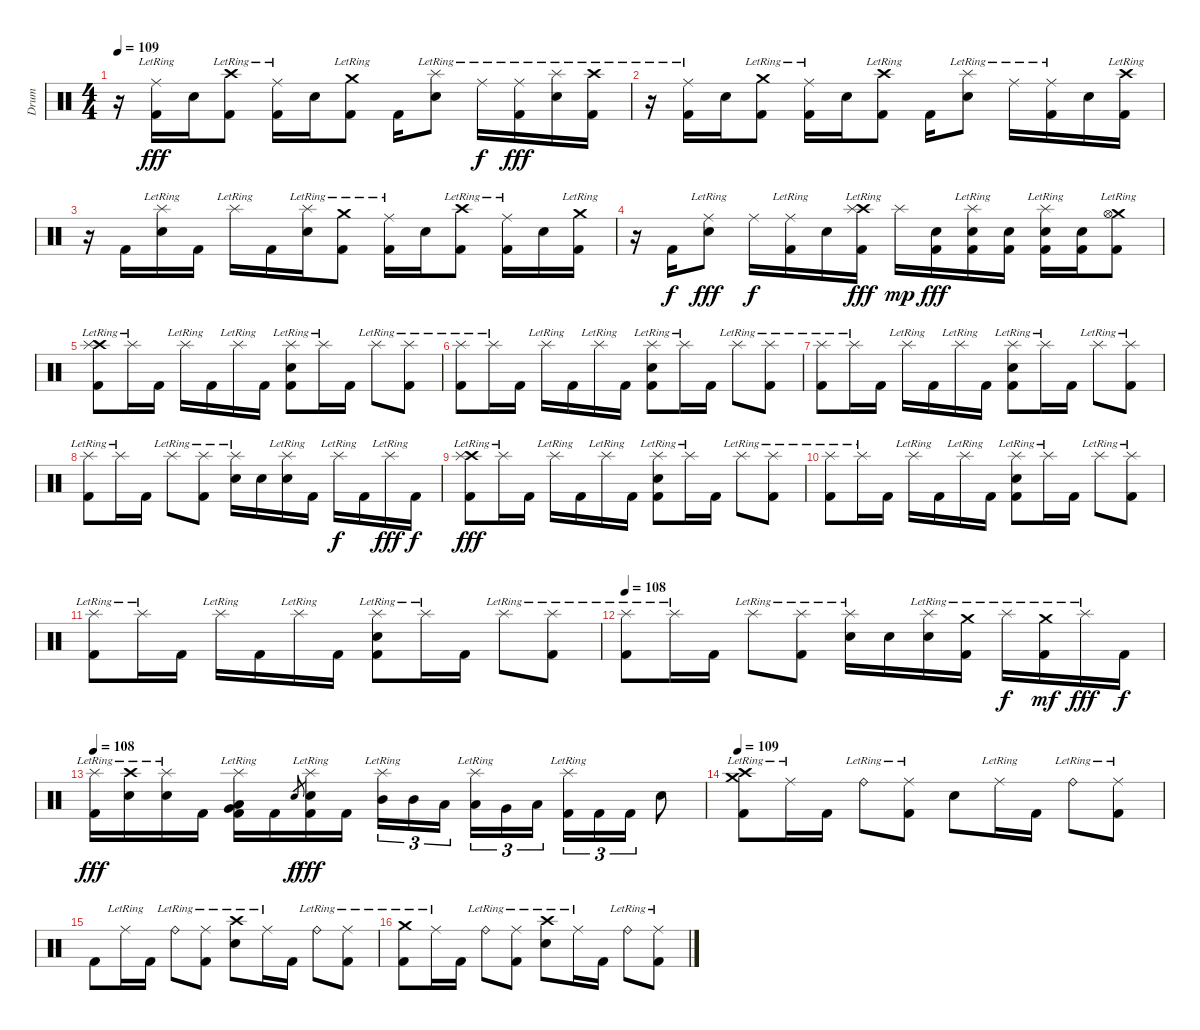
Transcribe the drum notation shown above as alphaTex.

\track ("Drum" "Drum") {instrument percussion}
\staff {score}
\articulation defaults
\ts (4 4)
\tempo 109
\clef neutral
\ks c
r.16{dy fff} ("Ride (middle)"{lr} "Kick (hit) 2").16 "Electric Snare (hit)".16 ("Crash high (hit)"{lr} "Kick (hit) 2").8 ("Ride (middle)"{lr} "Kick (hit) 2").16 "Electric Snare (hit)".16 ("Crash medium (hit)"{lr} "Kick (hit) 2").8 "Kick (hit) 2".16 ("Splash (hit)"{lr} "Electric Snare (hit)").8 "Ride (middle)"{lr}.16{dy f} ("Ride (middle)"{lr} "Kick (hit) 2").16{dy fff} ("Splash (hit)"{lr} "Electric Snare (hit)").16 ("Crash high (hit)"{lr} "Kick (hit) 2").16 |
r.16 ("Ride (middle)"{lr} "Kick (hit) 2").16 "Electric Snare (hit)".16 ("Crash medium (hit)"{lr} "Kick (hit) 2").8 ("Ride (middle)"{lr} "Kick (hit) 2").16 "Electric Snare (hit)".16 ("Crash high (hit)"{lr} "Kick (hit) 2").8 "Kick (hit) 2".16 ("Splash (hit)"{lr} "Electric Snare (hit)").8 "Ride (middle)"{lr}.16 ("Ride (middle)"{lr} "Kick (hit) 2").16 "Electric Snare (hit)".16 ("Crash high (hit)"{lr} "Kick (hit) 2").16 |
r.16 "Kick (hit) 2".16 ("Splash (hit)"{lr} "Electric Snare (hit)").16 "Kick (hit) 2".16 "Splash (hit)"{lr}.16 "Kick (hit) 2".16 ("Splash (hit)"{lr} "Electric Snare (hit)").16 ("Crash medium (hit)"{lr} "Kick (hit) 2").8 ("Ride (middle)"{lr} "Kick (hit) 2").16 "Electric Snare (hit)".16 ("Crash high (hit)"{lr} "Kick (hit) 2").8 ("Ride (middle)"{lr} "Kick (hit) 2").16 "Electric Snare (hit)".16 ("Crash medium (hit)"{lr} "Kick (hit) 2").16 |
r.16 "Kick (hit) 2".16{dy f} ("Ride (middle)"{lr} "Electric Snare (hit)").8{dy fff} "Ride (middle)".16{dy f} ("Ride (middle)"{lr} "Kick (hit) 2").16 "Electric Snare (hit)".16 ("Crash high (hit)"{lr} "Splash (hit)"{lr} "Kick (hit) 2").16{dy fff} "Splash (hit)".16{dy mp} ("Electric Snare (hit)" "Kick (hit) 2").16{dy fff} ("Splash (hit)"{lr} "Electric Snare (hit)" "Kick (hit) 2").16 ("Electric Snare (hit)" "Kick (hit) 2").16 ("Splash (hit)"{lr} "Electric Snare (hit)" "Kick (hit) 2").16 ("Electric Snare (hit)" "Kick (hit) 2").16 ("Crash medium (hit)" "Hi-Hat (open)"{lr} "Kick (hit) 2").8 |
("Crash high (hit)"{lr} "Splash (hit)"{lr} "Kick (hit) 2").8 "Splash (hit)"{lr}.16 "Kick (hit) 2".16 "Splash (hit)"{lr}.16 "Kick (hit) 2".16 "Splash (hit)"{lr}.16 "Kick (hit) 2".16 ("Splash (hit)"{lr} "Electric Snare (hit)" "Kick (hit) 2").8 "Splash (hit)"{lr}.16 "Kick (hit) 2".16 "Splash (hit)"{lr}.8 ("Splash (hit)"{lr} "Kick (hit) 2").8 |
("Splash (hit)"{lr} "Kick (hit) 2").8 "Splash (hit)"{lr}.16 "Kick (hit) 2".16 "Splash (hit)"{lr}.16 "Kick (hit) 2".16 "Splash (hit)"{lr}.16 "Kick (hit) 2".16 ("Splash (hit)"{lr} "Electric Snare (hit)" "Kick (hit) 2").8 "Splash (hit)"{lr}.16 "Kick (hit) 2".16 "Splash (hit)"{lr}.8 ("Splash (hit)"{lr} "Kick (hit) 2").8 |
("Splash (hit)"{lr} "Kick (hit) 2").8 "Splash (hit)"{lr}.16 "Kick (hit) 2".16 "Splash (hit)"{lr}.16 "Kick (hit) 2".16 "Splash (hit)"{lr}.16 "Kick (hit) 2".16 ("Splash (hit)"{lr} "Electric Snare (hit)" "Kick (hit) 2").8 "Splash (hit)"{lr}.16 "Kick (hit) 2".16 "Splash (hit)"{lr}.8 ("Splash (hit)"{lr} "Kick (hit) 2").8 |
("Splash (hit)"{lr} "Kick (hit) 2").8 "Splash (hit)"{lr}.16 "Kick (hit) 2".16 "Splash (hit)"{lr}.8 ("Splash (hit)"{lr} "Kick (hit) 2").8 ("Splash (hit)"{lr} "Electric Snare (hit)").16 "Electric Snare (hit)".16 ("Splash (hit)"{lr} "Electric Snare (hit)").16 "Kick (hit) 2".16 "Splash (hit)"{lr}.16{dy f} "Kick (hit) 2".16 "Splash (hit)"{lr}.16{dy fff} "Kick (hit) 2".16{dy f} |
("Crash high (hit)"{lr} "Splash (hit)"{lr} "Kick (hit) 2").8{dy fff} "Splash (hit)"{lr}.16 "Kick (hit) 2".16 "Splash (hit)"{lr}.16 "Kick (hit) 2".16 "Splash (hit)"{lr}.16 "Kick (hit) 2".16 ("Splash (hit)"{lr} "Electric Snare (hit)" "Kick (hit) 2").8 "Splash (hit)"{lr}.16 "Kick (hit) 2".16 "Splash (hit)"{lr}.8 ("Splash (hit)"{lr} "Kick (hit) 2").8 |
("Splash (hit)"{lr} "Kick (hit) 2").8 "Splash (hit)"{lr}.16 "Kick (hit) 2".16 "Splash (hit)"{lr}.16 "Kick (hit) 2".16 "Splash (hit)"{lr}.16 "Kick (hit) 2".16 ("Splash (hit)"{lr} "Electric Snare (hit)" "Kick (hit) 2").8 "Splash (hit)"{lr}.16 "Kick (hit) 2".16 "Splash (hit)"{lr}.8 ("Splash (hit)"{lr} "Kick (hit) 2").8 |
("Splash (hit)"{lr} "Kick (hit) 2").8 "Splash (hit)"{lr}.16 "Kick (hit) 2".16 "Splash (hit)"{lr}.16 "Kick (hit) 2".16 "Splash (hit)"{lr}.16 "Kick (hit) 2".16 ("Splash (hit)"{lr} "Electric Snare (hit)" "Kick (hit) 2").8 "Splash (hit)"{lr}.16 "Kick (hit) 2".16 "Splash (hit)"{lr}.8 ("Splash (hit)"{lr} "Kick (hit) 2").8 |
\tempo 108
("Splash (hit)"{lr} "Kick (hit) 2").8 "Splash (hit)"{lr}.16 "Kick (hit) 2".16 "Splash (hit)"{lr}.8 ("Splash (hit)"{lr} "Kick (hit) 2").8 ("Splash (hit)"{lr} "Electric Snare (hit)").16 "Electric Snare (hit)".16 ("Splash (hit)"{lr} "Electric Snare (hit)").16 ("Crash medium (hit)"{lr} "Kick (hit) 2").16 "Splash (hit)"{lr}.16{dy f} ("Crash medium (hit)"{lr} "Kick (hit) 2").16{dy mf} "Splash (hit)"{lr}.16{dy fff} "Kick (hit) 2".16{dy f} |
\tempo 108
("Splash (hit)"{lr} "Kick (hit) 2").16{dy fff} ("Crash high (hit)"{lr} "Electric Snare (hit)").16 ("Splash (hit)"{lr} "Electric Snare (hit)").16 "Kick (hit) 2".16 ("Splash (hit)"{lr} "Low Floor Tom (hit)" "Very Low Tom (hit)" "Kick (hit) 2").16 "Kick (hit) 2".16 "Electric Snare (hit)".8{gr dy f} ("Splash (hit)"{lr} "Electric Snare (hit)" "Kick (hit) 2").16{dy fff} "Kick (hit) 2".16 ("Splash (hit)"{lr} "Mid Tom (hit)").16{tu (3 2)} "Mid Tom (hit)".16{tu (3 2)} "Low Tom (hit)".16{tu (3 2)} ("Splash (hit)"{lr} "Low Tom (hit)").16{tu (3 2)} "Very Low Tom (hit)".16{tu (3 2)} "Low Floor Tom (hit)".16{tu (3 2)} ("Splash (hit)"{lr} "Kick (hit) 2").16{tu (3 2)} "Kick (hit) 2".16{tu (3 2)} "Kick (hit) 2".16{tu (3 2)} "Electric Snare (hit)".8 |
\tempo 109
("Crash high (hit)"{lr} "Crash medium (hit)"{lr} "Kick (hit) 2").8 "Ride (middle)"{lr}.16 "Kick (hit) 2".16 "Ride (bell)"{lr}.8 ("Ride (middle)"{lr} "Kick (hit) 2").8 "Electric Snare (hit)".8 "Ride (middle)"{lr}.16 "Kick (hit) 2".16 "Ride (bell)"{lr}.8 ("Ride (middle)"{lr} "Kick (hit) 2").8 |
"Kick (hit) 2".8 "Ride (middle)"{lr}.16 "Kick (hit) 2".16 "Ride (bell)"{lr}.8 ("Ride (middle)"{lr} "Kick (hit) 2").8 ("Crash high (hit)"{lr} "Electric Snare (hit)").8 "Ride (middle)"{lr}.16 "Kick (hit) 2".16 "Ride (bell)"{lr}.8 ("Ride (middle)"{lr} "Kick (hit) 2").8 |
("Crash medium (hit)"{lr} "Kick (hit) 2").8 "Ride (middle)"{lr}.16 "Kick (hit) 2".16 "Ride (bell)"{lr}.8 ("Ride (middle)"{lr} "Kick (hit) 2").8 ("Crash high (hit)"{lr} "Electric Snare (hit)").8 "Ride (middle)"{lr}.16 "Kick (hit) 2".16 "Ride (bell)"{lr}.8 ("Ride (middle)"{lr} "Kick (hit) 2").8
